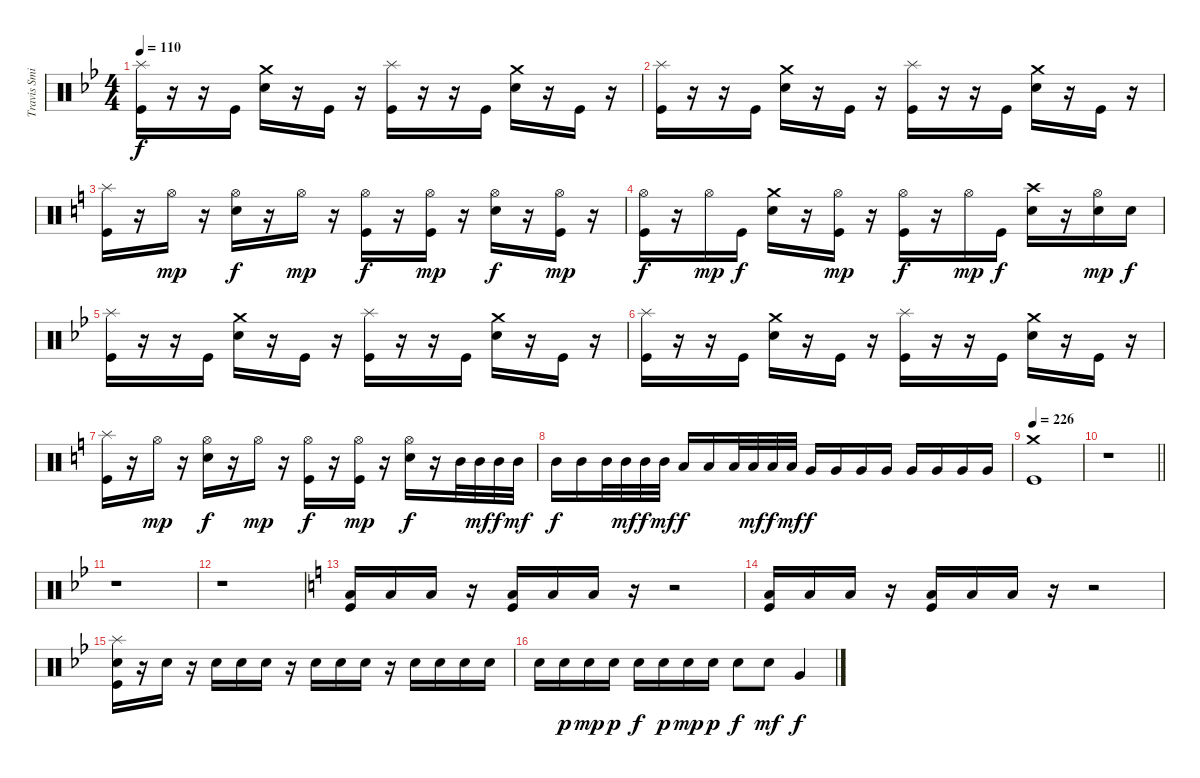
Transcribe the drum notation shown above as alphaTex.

\track ("Travis Smith" "Travis Smi") {instrument percussion}
\staff {score}
\articulation defaults
\ts (4 4)
\tempo 110
\clef neutral
\ks bb
("Splash (hit)" "Kick (hit)").16{dy f} r.16 r.16 "Kick (hit)".16 ("Crash medium (hit)" "Electric Snare (hit)").16 r.16 "Kick (hit)".16 r.16 ("Splash (hit)" "Kick (hit)").16 r.16 r.16 "Kick (hit)".16 ("Crash medium (hit)" "Electric Snare (hit)").16 r.16 "Kick (hit)".16 r.16 |
("Splash (hit)" "Kick (hit)").16 r.16 r.16 "Kick (hit)".16 ("Crash medium (hit)" "Electric Snare (hit)").16 r.16 "Kick (hit)".16 r.16 ("Splash (hit)" "Kick (hit)").16 r.16 r.16 "Kick (hit)".16 ("Crash medium (hit)" "Electric Snare (hit)").16 r.16 "Kick (hit)".16 r.16 |
\ks c
("Splash (hit)" "Kick (hit)").16 r.16 "Hi-Hat (open)".16{dy mp} r.16 ("Hi-Hat (open)" "Electric Snare (hit)").16{dy f} r.16 "Hi-Hat (open)".16{dy mp} r.16 ("Hi-Hat (open)" "Kick (hit)").16{dy f} r.16 ("Hi-Hat (open)" "Kick (hit)").16{dy mp} r.16 ("Hi-Hat (open)" "Electric Snare (hit)").16{dy f} r.16 ("Hi-Hat (open)" "Kick (hit)").16{dy mp} r.16 |
("Hi-Hat (open)" "Kick (hit)").16{dy f} r.16 "Hi-Hat (open)".16{dy mp} "Kick (hit)".16{dy f} ("Crash medium (hit)" "Electric Snare (hit)").16 r.16 ("Hi-Hat (open)" "Kick (hit)").16{dy mp} r.16 ("Hi-Hat (open)" "Kick (hit)").16{dy f} r.16 "Hi-Hat (open)".16{dy mp} "Kick (hit)".16{dy f} ("Crash high (hit)" "Electric Snare (hit)").16 r.16 ("Hi-Hat (open)" "Electric Snare (hit)").16{dy mp} "Electric Snare (hit)".16{dy f} |
\ks bb
("Splash (hit)" "Kick (hit)").16 r.16 r.16 "Kick (hit)".16 ("Crash medium (hit)" "Electric Snare (hit)").16 r.16 "Kick (hit)".16 r.16 ("Splash (hit)" "Kick (hit)").16 r.16 r.16 "Kick (hit)".16 ("Crash medium (hit)" "Electric Snare (hit)").16 r.16 "Kick (hit)".16 r.16 |
("Splash (hit)" "Kick (hit)").16 r.16 r.16 "Kick (hit)".16 ("Crash medium (hit)" "Electric Snare (hit)").16 r.16 "Kick (hit)".16 r.16 ("Splash (hit)" "Kick (hit)").16 r.16 r.16 "Kick (hit)".16 ("Crash medium (hit)" "Electric Snare (hit)").16 r.16 "Kick (hit)".16 r.16 |
\ks c
("Splash (hit)" "Kick (hit)").16 r.16 "Hi-Hat (open)".16{dy mp} r.16 ("Hi-Hat (open)" "Electric Snare (hit)").16{dy f} r.16 "Hi-Hat (open)".16{dy mp} r.16 ("Hi-Hat (open)" "Kick (hit)").16{dy f} r.16 ("Hi-Hat (open)" "Kick (hit)").16{dy mp} r.16 ("Hi-Hat (open)" "Electric Snare (hit)").16{dy f} r.16 "Mid Tom (hit)".32 "Mid Tom (hit)".32{dy mf} "Mid Tom (hit)".32{dy f} "Mid Tom (hit)".32{dy mf} |
"Mid Tom (hit)".16{dy f} "Mid Tom (hit)".16 "Mid Tom (hit)".32 "Mid Tom (hit)".32{dy mf} "Mid Tom (hit)".32{dy f} "Mid Tom (hit)".32{dy mf} "Low Tom (hit)".16{dy f} "Low Tom (hit)".16 "Low Tom (hit)".32 "Low Tom (hit)".32{dy mf} "Low Tom (hit)".32{dy f} "Low Tom (hit)".32{dy mf} "Very Low Tom (hit)".16{dy f} "Very Low Tom (hit)".16 "Very Low Tom (hit)".16 "Very Low Tom (hit)".16 "Very Low Tom (hit)".16 "Very Low Tom (hit)".16 "Very Low Tom (hit)".16 "Very Low Tom (hit)".16 |
\tempo 226
("Crash medium (hit)" "Kick (hit)").1 |
\barLineRight lightlight
r.1 |
\ks bb
r.1 |
r.1 |
\ks c
("Low Floor Tom (hit)" "Kick (hit)").16 "Low Floor Tom (hit)".16 "Low Floor Tom (hit)".16 r.16 ("Low Floor Tom (hit)" "Kick (hit)").16 "Low Floor Tom (hit)".16 "Low Floor Tom (hit)".16 r.16 r.2 |
("Low Floor Tom (hit)" "Kick (hit)").16 "Low Floor Tom (hit)".16 "Low Floor Tom (hit)".16 r.16 ("Low Floor Tom (hit)" "Kick (hit)").16 "Low Floor Tom (hit)".16 "Low Floor Tom (hit)".16 r.16 r.2 |
\ks bb
("Splash (hit)" "Electric Snare (hit)" "Kick (hit)").16 r.16 "Electric Snare (hit)".16 r.16 "Electric Snare (hit)".16 "Electric Snare (hit)".16 "Electric Snare (hit)".16 r.16 "Electric Snare (hit)".16 "Electric Snare (hit)".16 "Electric Snare (hit)".16 r.16 "Electric Snare (hit)".16 "Electric Snare (hit)".16 "Electric Snare (hit)".16 "Electric Snare (hit)".16 |
"Electric Snare (hit)".16 "Electric Snare (hit)".16{dy p} "Electric Snare (hit)".16{dy mp} "Electric Snare (hit)".16{dy p} "Electric Snare (hit)".16{dy f} "Electric Snare (hit)".16{dy p} "Electric Snare (hit)".16{dy mp} "Electric Snare (hit)".16{dy p} "Electric Snare (hit)".8{dy f} "Electric Snare (hit)".8{dy mf} "Very Low Tom (hit)".4{dy f}
